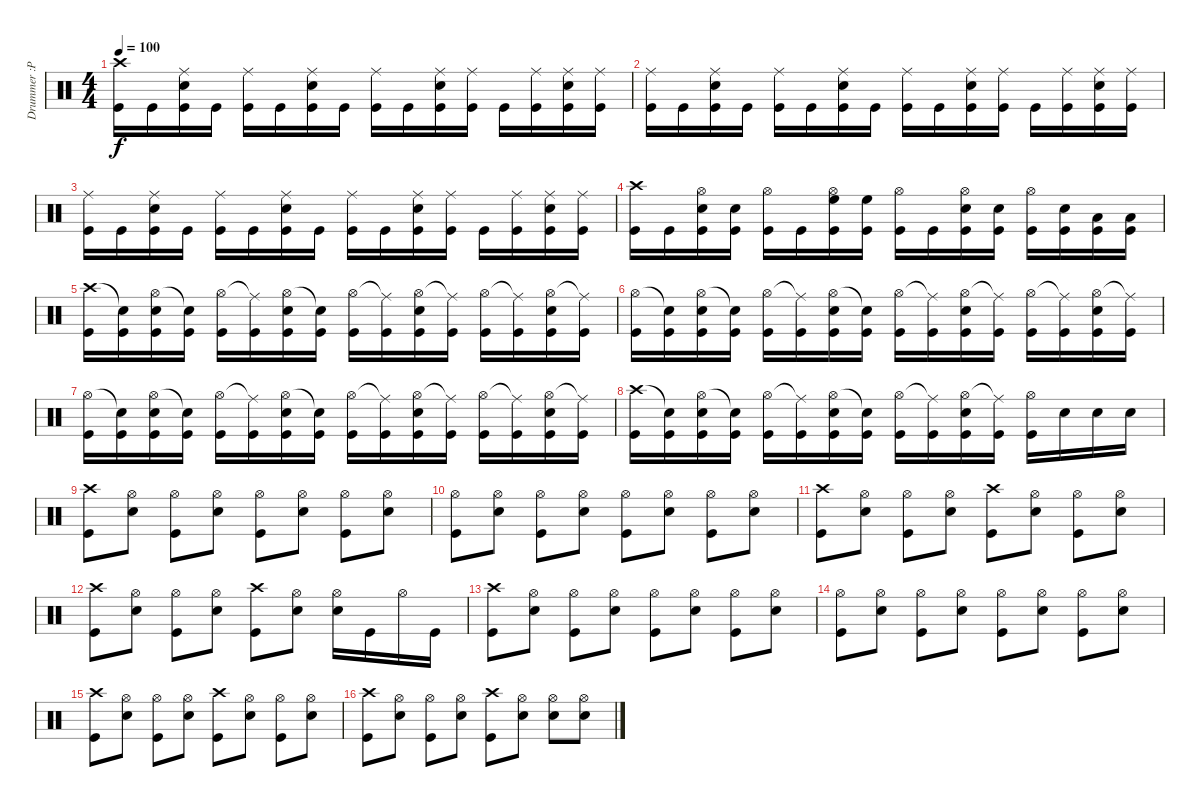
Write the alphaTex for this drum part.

\track ("Drummer :P" "Drummer :P") {instrument percussion}
\staff {score}
\articulation defaults
\ts (4 4)
\tempo 100
\clef neutral
\ks c
("Crash high (hit)" "Kick (hit)").16{dy f} "Kick (hit)".16 ("Ride (middle)" "Electric Snare (hit)" "Kick (hit)").16 "Kick (hit)".16 ("Ride (middle)" "Kick (hit)").16 "Kick (hit)".16 ("Ride (middle)" "Electric Snare (hit)" "Kick (hit)").16 "Kick (hit)".16 ("Ride (middle)" "Kick (hit)").16 "Kick (hit)".16 ("Ride (middle)" "Electric Snare (hit)" "Kick (hit)").16 ("Ride (middle)" "Kick (hit)").16 "Kick (hit)".16 ("Ride (middle)" "Kick (hit)").16 ("Ride (middle)" "Electric Snare (hit)" "Kick (hit)").16 ("Ride (middle)" "Kick (hit)").16 |
("Ride (middle)" "Kick (hit)").16 "Kick (hit)".16 ("Ride (middle)" "Electric Snare (hit)" "Kick (hit)").16 "Kick (hit)".16 ("Ride (middle)" "Kick (hit)").16 "Kick (hit)".16 ("Ride (middle)" "Electric Snare (hit)" "Kick (hit)").16 "Kick (hit)".16 ("Ride (middle)" "Kick (hit)").16 "Kick (hit)".16 ("Ride (middle)" "Electric Snare (hit)" "Kick (hit)").16 ("Ride (middle)" "Kick (hit)").16 "Kick (hit)".16 ("Ride (middle)" "Kick (hit)").16 ("Ride (middle)" "Electric Snare (hit)" "Kick (hit)").16 ("Ride (middle)" "Kick (hit)").16 |
("Ride (middle)" "Kick (hit)").16 "Kick (hit)".16 ("Ride (middle)" "Electric Snare (hit)" "Kick (hit)").16 "Kick (hit)".16 ("Ride (middle)" "Kick (hit)").16 "Kick (hit)".16 ("Ride (middle)" "Electric Snare (hit)" "Kick (hit)").16 "Kick (hit)".16 ("Ride (middle)" "Kick (hit)").16 "Kick (hit)".16 ("Ride (middle)" "Electric Snare (hit)" "Kick (hit)").16 ("Ride (middle)" "Kick (hit)").16 "Kick (hit)".16 ("Ride (middle)" "Kick (hit)").16 ("Ride (middle)" "Electric Snare (hit)" "Kick (hit)").16 ("Ride (middle)" "Kick (hit)").16 |
("Crash high (hit)" "Kick (hit)").16 "Kick (hit)".16 ("Hi-Hat (open)" "Electric Snare (hit)" "Kick (hit)").16 ("Electric Snare (hit)" "Kick (hit)").16 ("Hi-Hat (open)" "Kick (hit)").16 "Kick (hit)".16 ("High Floor Tom (hit)" "Hi-Hat (open)" "Kick (hit)").16 ("High Floor Tom (hit)" "Kick (hit)").16 ("Hi-Hat (open)" "Kick (hit)").16 "Kick (hit)".16 ("Hi-Hat (open)" "Electric Snare (hit)" "Kick (hit)").16 ("Electric Snare (hit)" "Kick (hit)").16 ("Hi-Hat (open)" "Kick (hit)").16 ("Electric Snare (hit)" "Kick (hit)").16 ("Low Tom (hit)" "Kick (hit)").16 ("Low Tom (hit)" "Kick (hit)").16 |
("Crash high (hit)" "Kick (hit)").16 ("Snare (hit)"{t} "Kick (hit)").16 ("Hi-Hat (open)" "Electric Snare (hit)" "Kick (hit)").16 ("Snare (hit)"{t} "Kick (hit)").16 ("Hi-Hat (open)" "Kick (hit)").16 ("Ride (middle)"{t} "Kick (hit)").16 ("Hi-Hat (open)" "Electric Snare (hit)" "Kick (hit)").16 ("Snare (hit)"{t} "Kick (hit)").16 ("Hi-Hat (open)" "Kick (hit)").16 ("Ride (middle)"{t} "Kick (hit)").16 ("Hi-Hat (open)" "Electric Snare (hit)" "Kick (hit)").16 ("Ride (middle)"{t} "Kick (hit)").16 ("Hi-Hat (open)" "Kick (hit)").16 ("Ride (middle)"{t} "Kick (hit)").16 ("Hi-Hat (open)" "Electric Snare (hit)" "Kick (hit)").16 ("Ride (middle)"{t} "Kick (hit)").16 |
("Hi-Hat (open)" "Kick (hit)").16 ("Snare (hit)"{t} "Kick (hit)").16 ("Hi-Hat (open)" "Electric Snare (hit)" "Kick (hit)").16 ("Snare (hit)"{t} "Kick (hit)").16 ("Hi-Hat (open)" "Kick (hit)").16 ("Ride (middle)"{t} "Kick (hit)").16 ("Hi-Hat (open)" "Electric Snare (hit)" "Kick (hit)").16 ("Snare (hit)"{t} "Kick (hit)").16 ("Hi-Hat (open)" "Kick (hit)").16 ("Ride (middle)"{t} "Kick (hit)").16 ("Hi-Hat (open)" "Electric Snare (hit)" "Kick (hit)").16 ("Ride (middle)"{t} "Kick (hit)").16 ("Hi-Hat (open)" "Kick (hit)").16 ("Ride (middle)"{t} "Kick (hit)").16 ("Hi-Hat (open)" "Electric Snare (hit)" "Kick (hit)").16 ("Ride (middle)"{t} "Kick (hit)").16 |
("Hi-Hat (open)" "Kick (hit)").16 ("Snare (hit)"{t} "Kick (hit)").16 ("Hi-Hat (open)" "Electric Snare (hit)" "Kick (hit)").16 ("Snare (hit)"{t} "Kick (hit)").16 ("Hi-Hat (open)" "Kick (hit)").16 ("Ride (middle)"{t} "Kick (hit)").16 ("Hi-Hat (open)" "Electric Snare (hit)" "Kick (hit)").16 ("Snare (hit)"{t} "Kick (hit)").16 ("Hi-Hat (open)" "Kick (hit)").16 ("Ride (middle)"{t} "Kick (hit)").16 ("Hi-Hat (open)" "Electric Snare (hit)" "Kick (hit)").16 ("Ride (middle)"{t} "Kick (hit)").16 ("Hi-Hat (open)" "Kick (hit)").16 ("Ride (middle)"{t} "Kick (hit)").16 ("Hi-Hat (open)" "Electric Snare (hit)" "Kick (hit)").16 ("Ride (middle)"{t} "Kick (hit)").16 |
("Crash high (hit)" "Kick (hit)").16 ("Snare (hit)"{t} "Kick (hit)").16 ("Hi-Hat (open)" "Electric Snare (hit)" "Kick (hit)").16 ("Snare (hit)"{t} "Kick (hit)").16 ("Hi-Hat (open)" "Kick (hit)").16 ("Ride (middle)"{t} "Kick (hit)").16 ("Hi-Hat (open)" "Electric Snare (hit)" "Kick (hit)").16 ("Snare (hit)"{t} "Kick (hit)").16 ("Hi-Hat (open)" "Kick (hit)").16 ("Ride (middle)"{t} "Kick (hit)").16 ("Hi-Hat (open)" "Electric Snare (hit)" "Kick (hit)").16 ("Ride (middle)"{t} "Kick (hit)").16 ("Hi-Hat (open)" "Kick (hit)").16 "Electric Snare (hit)".16 "Electric Snare (hit)".16 "Electric Snare (hit)".16 |
("Crash high (hit)" "Kick (hit)").8 ("Hi-Hat (open)" "Electric Snare (hit)").8 ("Hi-Hat (open)" "Kick (hit)").8 ("Hi-Hat (open)" "Electric Snare (hit)").8 ("Hi-Hat (open)" "Kick (hit)").8 ("Hi-Hat (open)" "Electric Snare (hit)").8 ("Hi-Hat (open)" "Kick (hit)").8 ("Hi-Hat (open)" "Electric Snare (hit)").8 |
("Hi-Hat (open)" "Kick (hit)").8 ("Hi-Hat (open)" "Electric Snare (hit)").8 ("Hi-Hat (open)" "Kick (hit)").8 ("Hi-Hat (open)" "Electric Snare (hit)").8 ("Hi-Hat (open)" "Kick (hit)").8 ("Hi-Hat (open)" "Electric Snare (hit)").8 ("Hi-Hat (open)" "Kick (hit)").8 ("Hi-Hat (open)" "Electric Snare (hit)").8 |
("Crash high (hit)" "Kick (hit)").8 ("Hi-Hat (open)" "Electric Snare (hit)").8 ("Hi-Hat (open)" "Kick (hit)").8 ("Hi-Hat (open)" "Electric Snare (hit)").8 ("Crash high (hit)" "Kick (hit)").8 ("Hi-Hat (open)" "Electric Snare (hit)").8 ("Hi-Hat (open)" "Kick (hit)").8 ("Hi-Hat (open)" "Electric Snare (hit)").8 |
("Crash high (hit)" "Kick (hit)").8 ("Hi-Hat (open)" "Electric Snare (hit)").8 ("Hi-Hat (open)" "Kick (hit)").8 ("Hi-Hat (open)" "Electric Snare (hit)").8 ("Crash high (hit)" "Kick (hit)").8 ("Hi-Hat (open)" "Electric Snare (hit)").8 ("Hi-Hat (open)" "Electric Snare (hit)").16 "Kick (hit)".16 "Hi-Hat (open)".16 "Kick (hit)".16 |
("Crash high (hit)" "Kick (hit)").8 ("Hi-Hat (open)" "Electric Snare (hit)").8 ("Hi-Hat (open)" "Kick (hit)").8 ("Hi-Hat (open)" "Electric Snare (hit)").8 ("Hi-Hat (open)" "Kick (hit)").8 ("Hi-Hat (open)" "Electric Snare (hit)").8 ("Hi-Hat (open)" "Kick (hit)").8 ("Hi-Hat (open)" "Electric Snare (hit)").8 |
("Hi-Hat (open)" "Kick (hit)").8 ("Hi-Hat (open)" "Electric Snare (hit)").8 ("Hi-Hat (open)" "Kick (hit)").8 ("Hi-Hat (open)" "Electric Snare (hit)").8 ("Hi-Hat (open)" "Kick (hit)").8 ("Hi-Hat (open)" "Electric Snare (hit)").8 ("Hi-Hat (open)" "Kick (hit)").8 ("Hi-Hat (open)" "Electric Snare (hit)").8 |
("Crash high (hit)" "Kick (hit)").8 ("Hi-Hat (open)" "Electric Snare (hit)").8 ("Hi-Hat (open)" "Kick (hit)").8 ("Hi-Hat (open)" "Electric Snare (hit)").8 ("Crash high (hit)" "Kick (hit)").8 ("Hi-Hat (open)" "Electric Snare (hit)").8 ("Hi-Hat (open)" "Kick (hit)").8 ("Hi-Hat (open)" "Electric Snare (hit)").8 |
("Crash high (hit)" "Kick (hit)").8 ("Hi-Hat (open)" "Electric Snare (hit)").8 ("Hi-Hat (open)" "Kick (hit)").8 ("Hi-Hat (open)" "Electric Snare (hit)").8 ("Crash high (hit)" "Kick (hit)").8 ("Hi-Hat (open)" "Electric Snare (hit)").8 ("Hi-Hat (open)" "Electric Snare (hit)").8 ("Hi-Hat (open)" "Electric Snare (hit)").8
